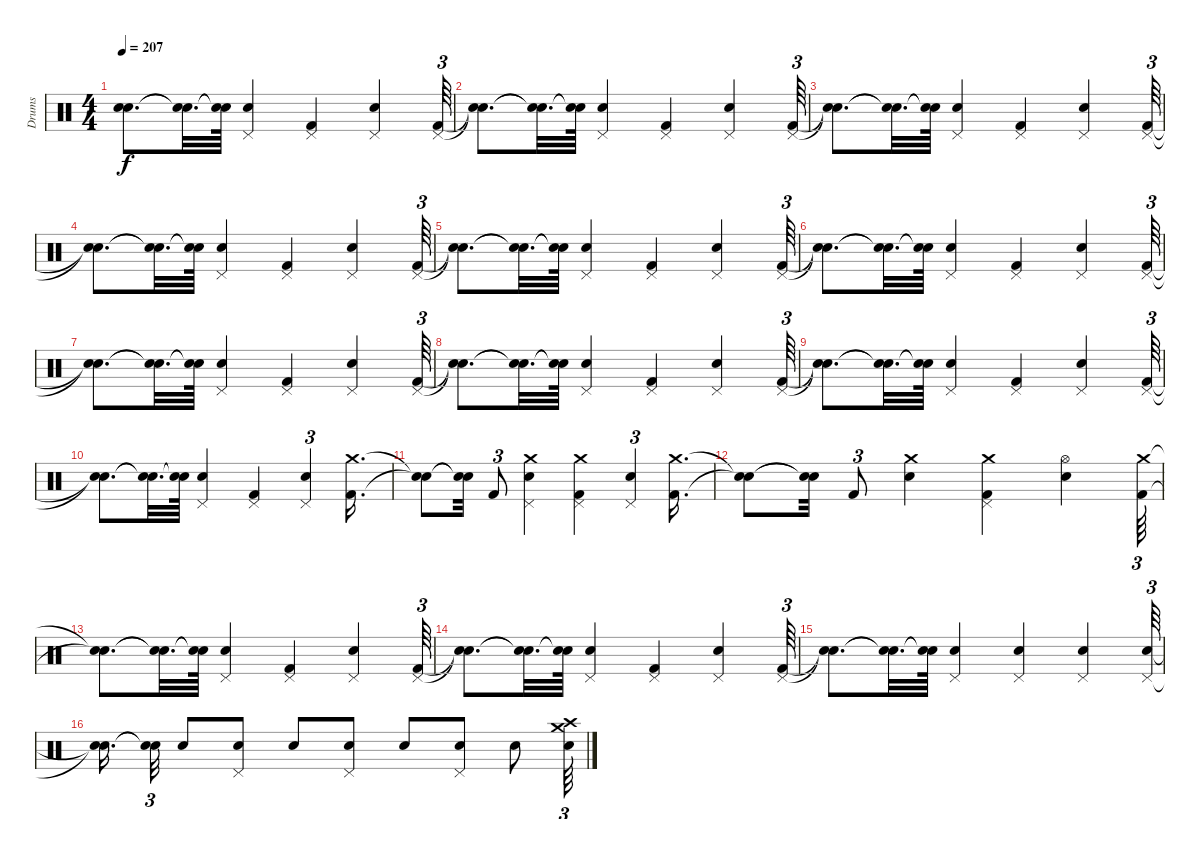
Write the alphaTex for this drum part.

\track ("Drums" "Drums") {instrument percussion}
\staff {score}
\articulation defaults
\ts (4 4)
\tempo 207
\clef neutral
\ks c
("Snare (hit)"{t} "Snare (hit)"{t}).8{d dy f} ("Snare (hit)"{t} "Snare (hit)"{t}).32{d} ("Snare (hit)"{t} "Snare (hit)"{t}).64 ("Pedal Hi-Hat (hit)" "Snare (hit) 2").4 ("Pedal Hi-Hat (hit)" "Kick (hit) 2").4 ("Pedal Hi-Hat (hit)" "Snare (hit) 2").4 ("Pedal Hi-Hat (hit)" "Kick (hit) 2").64{tu (3 2)} |
("Snare (hit)"{t} "Snare (hit)"{t}).8{d} ("Snare (hit)"{t} "Snare (hit)"{t}).32{d} ("Snare (hit)"{t} "Snare (hit)"{t}).64 ("Pedal Hi-Hat (hit)" "Snare (hit) 2").4 ("Pedal Hi-Hat (hit)" "Kick (hit) 2").4 ("Pedal Hi-Hat (hit)" "Snare (hit) 2").4 ("Pedal Hi-Hat (hit)" "Kick (hit) 2").64{tu (3 2)} |
("Snare (hit)"{t} "Snare (hit)"{t}).8{d} ("Snare (hit)"{t} "Snare (hit)"{t}).32{d} ("Snare (hit)"{t} "Snare (hit)"{t}).64 ("Pedal Hi-Hat (hit)" "Snare (hit) 2").4 ("Pedal Hi-Hat (hit)" "Kick (hit) 2").4 ("Pedal Hi-Hat (hit)" "Snare (hit) 2").4 ("Pedal Hi-Hat (hit)" "Kick (hit) 2").64{tu (3 2)} |
("Snare (hit)"{t} "Snare (hit)"{t}).8{d} ("Snare (hit)"{t} "Snare (hit)"{t}).32{d} ("Snare (hit)"{t} "Snare (hit)"{t}).64 ("Pedal Hi-Hat (hit)" "Snare (hit) 2").4 ("Pedal Hi-Hat (hit)" "Kick (hit) 2").4 ("Pedal Hi-Hat (hit)" "Snare (hit) 2").4 ("Pedal Hi-Hat (hit)" "Kick (hit) 2").64{tu (3 2)} |
("Snare (hit)"{t} "Snare (hit)"{t}).8{d} ("Snare (hit)"{t} "Snare (hit)"{t}).32{d} ("Snare (hit)"{t} "Snare (hit)"{t}).64 ("Pedal Hi-Hat (hit)" "Snare (hit) 2").4 ("Pedal Hi-Hat (hit)" "Kick (hit) 2").4 ("Pedal Hi-Hat (hit)" "Snare (hit) 2").4 ("Pedal Hi-Hat (hit)" "Kick (hit) 2").64{tu (3 2)} |
("Snare (hit)"{t} "Snare (hit)"{t}).8{d} ("Snare (hit)"{t} "Snare (hit)"{t}).32{d} ("Snare (hit)"{t} "Snare (hit)"{t}).64 ("Pedal Hi-Hat (hit)" "Snare (hit) 2").4 ("Pedal Hi-Hat (hit)" "Kick (hit) 2").4 ("Pedal Hi-Hat (hit)" "Snare (hit) 2").4 ("Pedal Hi-Hat (hit)" "Kick (hit) 2").64{tu (3 2)} |
("Snare (hit)"{t} "Snare (hit)"{t}).8{d} ("Snare (hit)"{t} "Snare (hit)"{t}).32{d} ("Snare (hit)"{t} "Snare (hit)"{t}).64 ("Pedal Hi-Hat (hit)" "Snare (hit) 2").4 ("Pedal Hi-Hat (hit)" "Kick (hit) 2").4 ("Pedal Hi-Hat (hit)" "Snare (hit) 2").4 ("Pedal Hi-Hat (hit)" "Kick (hit) 2").64{tu (3 2)} |
("Snare (hit)"{t} "Snare (hit)"{t}).8{d} ("Snare (hit)"{t} "Snare (hit)"{t}).32{d} ("Snare (hit)"{t} "Snare (hit)"{t}).64 ("Pedal Hi-Hat (hit)" "Snare (hit) 2").4 ("Pedal Hi-Hat (hit)" "Kick (hit) 2").4 ("Pedal Hi-Hat (hit)" "Snare (hit) 2").4 ("Pedal Hi-Hat (hit)" "Kick (hit) 2").64{tu (3 2)} |
("Snare (hit)"{t} "Snare (hit)"{t}).8{d} ("Snare (hit)"{t} "Snare (hit)"{t}).32{d} ("Snare (hit)"{t} "Snare (hit)"{t}).64 ("Pedal Hi-Hat (hit)" "Snare (hit) 2").4 ("Pedal Hi-Hat (hit)" "Kick (hit) 2").4 ("Pedal Hi-Hat (hit)" "Snare (hit) 2").4 ("Pedal Hi-Hat (hit)" "Kick (hit) 2").64{tu (3 2)} |
("Snare (hit)"{t} "Snare (hit)"{t}).8{d} ("Snare (hit)"{t} "Snare (hit)"{t}).32{d} ("Snare (hit)"{t} "Snare (hit)"{t}).64 ("Pedal Hi-Hat (hit)" "Snare (hit) 2").4 ("Pedal Hi-Hat (hit)" "Kick (hit) 2").4 ("Pedal Hi-Hat (hit)" "Snare (hit) 2").4{tu (3 2)} ("Crash medium (hit)" "Kick (hit) 2").16{d} |
("Snare (hit)"{t} "Snare (hit)"{t}).8 ("Snare (hit)"{t} "Snare (hit)"{t}).32 "Kick (hit) 2".8{tu (3 2)} ("Pedal Hi-Hat (hit)" "Crash medium (hit)" "Snare (hit) 2").4 ("Crash medium (hit)" "Pedal Hi-Hat (hit)" "Kick (hit) 2").4 ("Pedal Hi-Hat (hit)" "Snare (hit) 2").4{tu (3 2)} ("Crash medium (hit)" "Kick (hit) 2").16{d} |
("Snare (hit)"{t} "Snare (hit)"{t}).8 ("Snare (hit)"{t} "Snare (hit)"{t}).32 "Kick (hit) 2".8{tu (3 2)} ("Crash medium (hit)" "Snare (hit) 2").4 ("Crash medium (hit)" "Pedal Hi-Hat (hit)" "Kick (hit) 2").4 ("Hi-Hat (open)" "Snare (hit) 2").4 ("Crash medium (hit)" "Kick (hit) 2").64{tu (3 2)} |
("Snare (hit)"{t} "Snare (hit)"{t}).8{d} ("Snare (hit)"{t} "Snare (hit)"{t}).32{d} ("Snare (hit)"{t} "Snare (hit)"{t}).64 ("Pedal Hi-Hat (hit)" "Snare (hit) 2").4 ("Pedal Hi-Hat (hit)" "Kick (hit) 2").4 ("Pedal Hi-Hat (hit)" "Snare (hit) 2").4 ("Pedal Hi-Hat (hit)" "Kick (hit) 2").64{tu (3 2)} |
("Snare (hit)"{t} "Snare (hit)"{t}).8{d} ("Snare (hit)"{t} "Snare (hit)"{t}).32{d} ("Snare (hit)"{t} "Snare (hit)"{t}).64 ("Pedal Hi-Hat (hit)" "Snare (hit) 2").4 ("Pedal Hi-Hat (hit)" "Kick (hit) 2").4 ("Pedal Hi-Hat (hit)" "Snare (hit) 2").4 ("Pedal Hi-Hat (hit)" "Kick (hit) 2").64{tu (3 2)} |
("Snare (hit)"{t} "Snare (hit)"{t}).8{d} ("Snare (hit)"{t} "Snare (hit)"{t}).32{d} ("Snare (hit)"{t} "Snare (hit)"{t}).64 ("Pedal Hi-Hat (hit)" "Snare (hit) 2").4 ("Pedal Hi-Hat (hit)" "Snare (hit) 2").4 ("Pedal Hi-Hat (hit)" "Snare (hit) 2").4 ("Pedal Hi-Hat (hit)" "Snare (hit) 2").64{tu (3 2)} |
("Snare (hit)"{t} "Snare (hit)"{t}).16{d} ("Snare (hit)"{t} "Snare (hit)"{t}).32{tu (3 2)} "Snare (hit) 2".8 ("Pedal Hi-Hat (hit)" "Snare (hit) 2").8 "Snare (hit) 2".8 ("Pedal Hi-Hat (hit)" "Snare (hit) 2").8 "Snare (hit) 2".8 ("Pedal Hi-Hat (hit)" "Snare (hit) 2").8 "Snare (hit) 2".8 ("Crash high (hit)" "Crash medium (hit)" "Snare (hit) 2").64{tu (3 2)}
